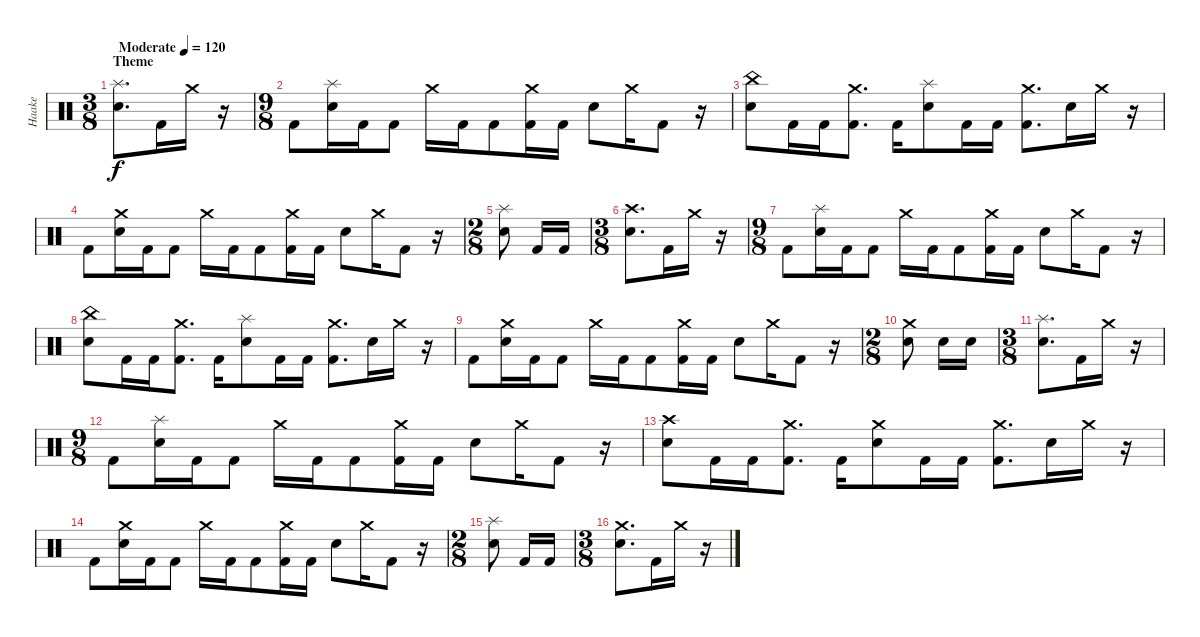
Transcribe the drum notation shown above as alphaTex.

\track ("Haake" "Haake") {instrument percussion}
\staff {score}
\articulation defaults
\ts (3 8)
\section ("" "Theme")
\tempo (120 "Moderate")
\clef neutral
\ks c
("Splash (hit)" "Electric Snare (hit)").8{d dy f} "Kick (hit) 2".16 "Crash medium (hit)".16 r.16 |
\ts (9 8)
"Kick (hit) 2".8 ("Splash (hit)" "Electric Snare (hit)").16 "Kick (hit) 2".16 "Kick (hit) 2".8 "Crash medium (hit)".16 "Kick (hit) 2".16 "Kick (hit) 2".8 ("Crash medium (hit)" "Kick (hit) 2").16 "Kick (hit) 2".16 "Electric Snare (hit)".8 "Crash medium (hit)".16 "Kick (hit) 2".8 r.16 |
("China (hit)" "Electric Snare (hit)").8 "Kick (hit) 2".16 "Kick (hit) 2".16 ("Crash medium (hit)" "Kick (hit) 2").8{d} "Kick (hit) 2".16 ("Splash (hit)" "Electric Snare (hit)").8 "Kick (hit) 2".16 "Kick (hit) 2".16 ("Crash medium (hit)" "Kick (hit) 2").8{d} "Electric Snare (hit)".16 "Crash medium (hit)".16 r.16 |
"Kick (hit) 2".8 ("Crash medium (hit)" "Electric Snare (hit)").16 "Kick (hit) 2".16 "Kick (hit) 2".8 "Crash medium (hit)".16 "Kick (hit) 2".16 "Kick (hit) 2".8 ("Crash medium (hit)" "Kick (hit) 2").16 "Kick (hit) 2".16 "Electric Snare (hit)".8 "Crash medium (hit)".16 "Kick (hit) 2".8 r.16 |
\ts (2 8)
("Splash (hit)" "Electric Snare (hit)").8 "Kick (hit) 2".16 "Kick (hit) 2".16 |
\ts (3 8)
("Crash high (hit)" "Electric Snare (hit)").8{d} "Kick (hit) 2".16 "Crash medium (hit)".16 r.16 |
\ts (9 8)
"Kick (hit) 2".8 ("Splash (hit)" "Electric Snare (hit)").16 "Kick (hit) 2".16 "Kick (hit) 2".8 "Crash medium (hit)".16 "Kick (hit) 2".16 "Kick (hit) 2".8 ("Crash medium (hit)" "Kick (hit) 2").16 "Kick (hit) 2".16 "Electric Snare (hit)".8 "Crash medium (hit)".16 "Kick (hit) 2".8 r.16 |
("China (hit)" "Electric Snare (hit)").8 "Kick (hit) 2".16 "Kick (hit) 2".16 ("Crash medium (hit)" "Kick (hit) 2").8{d} "Kick (hit) 2".16 ("Splash (hit)" "Electric Snare (hit)").8 "Kick (hit) 2".16 "Kick (hit) 2".16 ("Crash medium (hit)" "Kick (hit) 2").8{d} "Electric Snare (hit)".16 "Crash medium (hit)".16 r.16 |
"Kick (hit) 2".8 ("Crash medium (hit)" "Electric Snare (hit)").16 "Kick (hit) 2".16 "Kick (hit) 2".8 "Crash medium (hit)".16 "Kick (hit) 2".16 "Kick (hit) 2".8 ("Crash medium (hit)" "Kick (hit) 2").16 "Kick (hit) 2".16 "Electric Snare (hit)".8 "Crash medium (hit)".16 "Kick (hit) 2".8 r.16 |
\ts (2 8)
("Crash medium (hit)" "Electric Snare (hit)").8 "Electric Snare (hit)".16 "Electric Snare (hit)".16 |
\ts (3 8)
("Splash (hit)" "Electric Snare (hit)").8{d} "Kick (hit) 2".16 "Crash medium (hit)".16 r.16 |
\ts (9 8)
"Kick (hit) 2".8 ("Splash (hit)" "Electric Snare (hit)").16 "Kick (hit) 2".16 "Kick (hit) 2".8 "Crash medium (hit)".16 "Kick (hit) 2".16 "Kick (hit) 2".8 ("Crash medium (hit)" "Kick (hit) 2").16 "Kick (hit) 2".16 "Electric Snare (hit)".8 "Crash medium (hit)".16 "Kick (hit) 2".8 r.16 |
("Crash high (hit)" "Electric Snare (hit)").8 "Kick (hit) 2".16 "Kick (hit) 2".16 ("Crash medium (hit)" "Kick (hit) 2").8{d} "Kick (hit) 2".16 ("Crash medium (hit)" "Electric Snare (hit)").8 "Kick (hit) 2".16 "Kick (hit) 2".16 ("Crash medium (hit)" "Kick (hit) 2").8{d} "Electric Snare (hit)".16 "Crash medium (hit)".16 r.16 |
"Kick (hit) 2".8 ("Crash medium (hit)" "Electric Snare (hit)").16 "Kick (hit) 2".16 "Kick (hit) 2".8 "Crash medium (hit)".16 "Kick (hit) 2".16 "Kick (hit) 2".8 ("Crash medium (hit)" "Kick (hit) 2").16 "Kick (hit) 2".16 "Electric Snare (hit)".8 "Crash medium (hit)".16 "Kick (hit) 2".8 r.16 |
\ts (2 8)
("Splash (hit)" "Electric Snare (hit)").8 "Kick (hit) 2".16 "Kick (hit) 2".16 |
\ts (3 8)
("Crash medium (hit)" "Electric Snare (hit)").8{d} "Kick (hit) 2".16 "Crash medium (hit)".16 r.16
